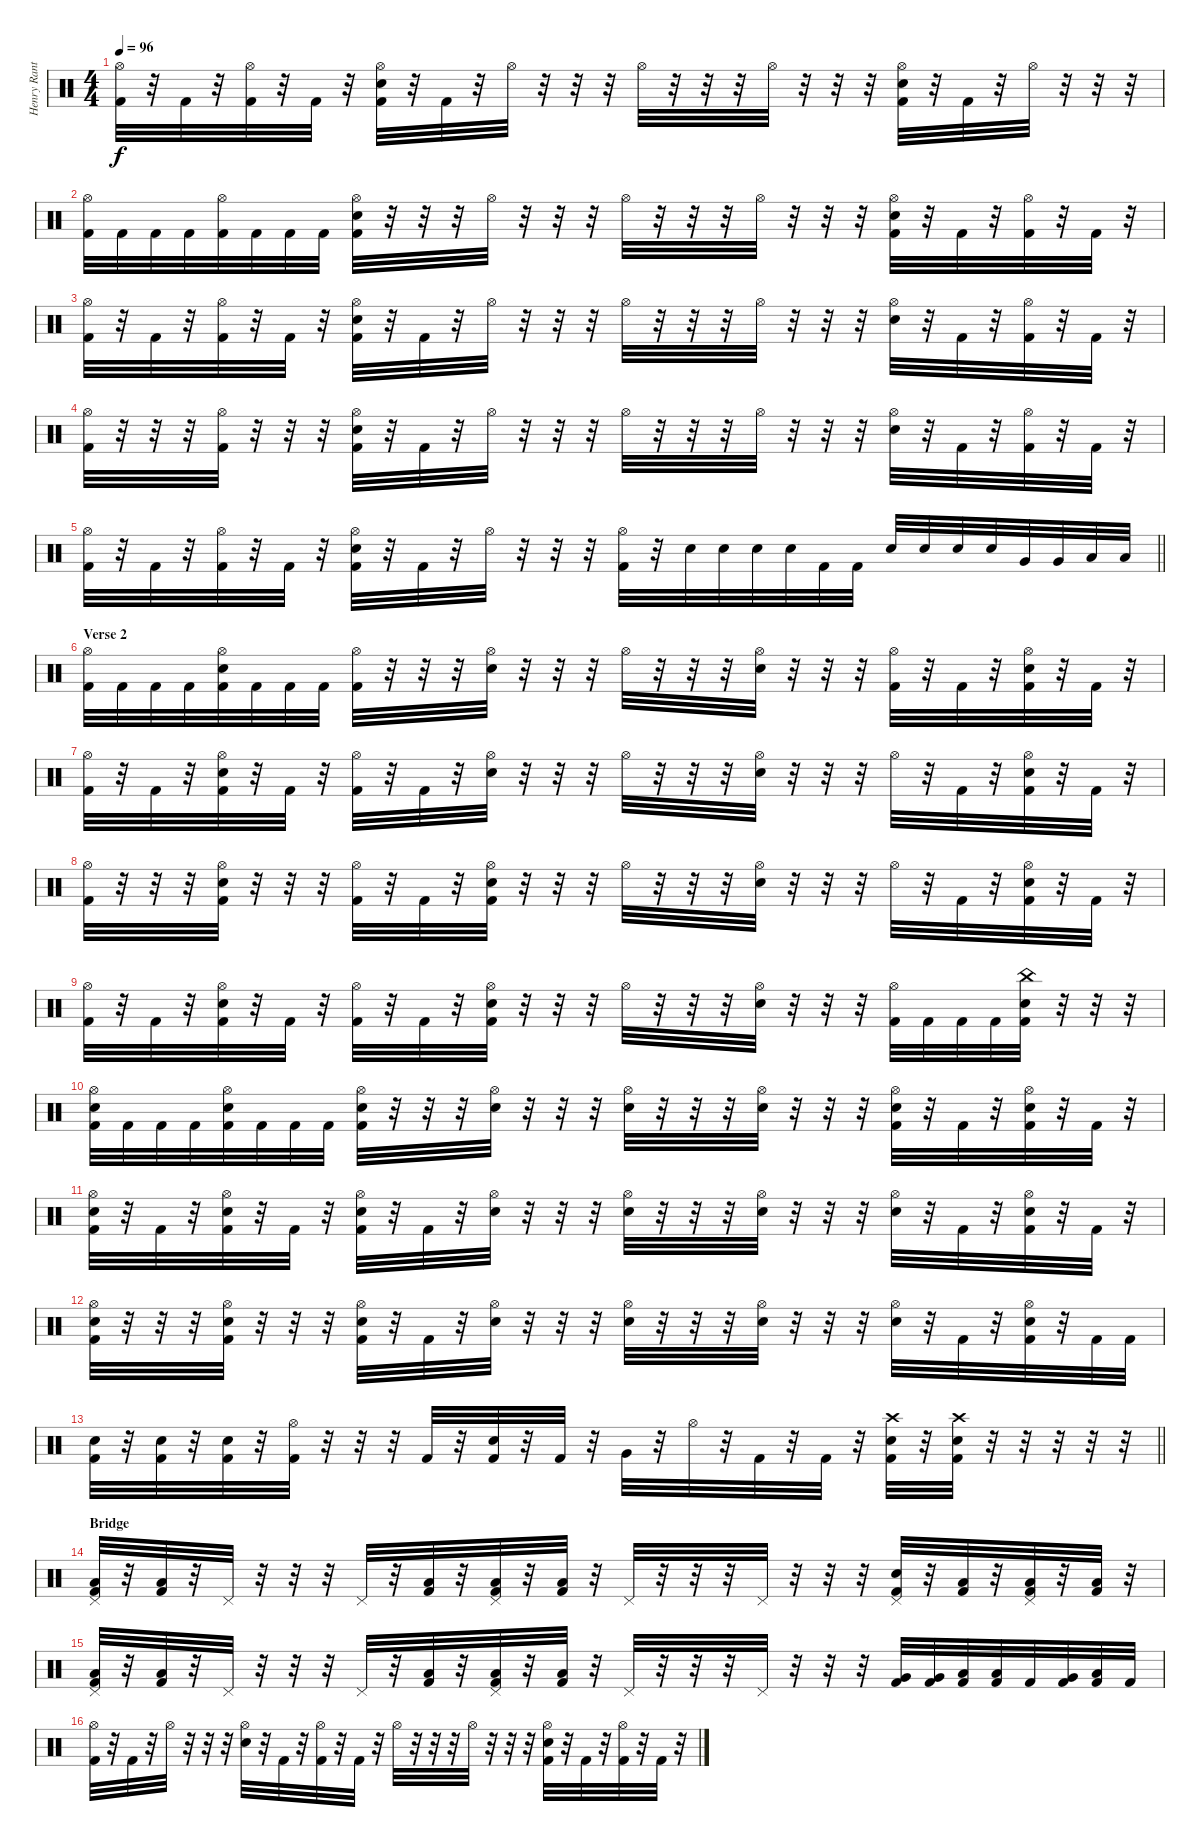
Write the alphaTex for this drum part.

\track ("Henry Ranta (Drumms)" "Henry Rant") {instrument percussion}
\staff {score}
\articulation defaults
\ts (4 4)
\tempo 96
\clef neutral
\ks c
("Hi-Hat (open)" "Kick (hit) 2").32{dy f} r.32 "Kick (hit) 2".32 r.32 ("Hi-Hat (open)" "Kick (hit) 2").32 r.32 "Kick (hit) 2".32 r.32 ("Hi-Hat (open)" "Snare (hit) 2" "Kick (hit) 2").32 r.32 "Kick (hit) 2".32 r.32 "Hi-Hat (open)".32 r.32 r.32 r.32 "Hi-Hat (open)".32 r.32 r.32 r.32 "Hi-Hat (open)".32 r.32 r.32 r.32 ("Hi-Hat (open)" "Snare (hit) 2" "Kick (hit) 2").32 r.32 "Kick (hit) 2".32 r.32 "Hi-Hat (open)".32 r.32 r.32 r.32 |
("Hi-Hat (open)" "Kick (hit) 2").32 "Kick (hit) 2".32 "Kick (hit) 2".32 "Kick (hit) 2".32 ("Hi-Hat (open)" "Kick (hit) 2").32 "Kick (hit) 2".32 "Kick (hit) 2".32 "Kick (hit) 2".32 ("Hi-Hat (open)" "Snare (hit) 2" "Kick (hit) 2").32 r.32 r.32 r.32 "Hi-Hat (open)".32 r.32 r.32 r.32 "Hi-Hat (open)".32 r.32 r.32 r.32 "Hi-Hat (open)".32 r.32 r.32 r.32 ("Hi-Hat (open)" "Snare (hit) 2" "Kick (hit) 2").32 r.32 "Kick (hit) 2".32 r.32 ("Hi-Hat (open)" "Kick (hit) 2").32 r.32 "Kick (hit) 2".32 r.32 |
("Hi-Hat (open)" "Kick (hit) 2").32 r.32 "Kick (hit) 2".32 r.32 ("Hi-Hat (open)" "Kick (hit) 2").32 r.32 "Kick (hit) 2".32 r.32 ("Hi-Hat (open)" "Snare (hit) 2" "Kick (hit) 2").32 r.32 "Kick (hit) 2".32 r.32 "Hi-Hat (open)".32 r.32 r.32 r.32 "Hi-Hat (open)".32 r.32 r.32 r.32 "Hi-Hat (open)".32 r.32 r.32 r.32 ("Hi-Hat (open)" "Snare (hit) 2").32 r.32 "Kick (hit) 2".32 r.32 ("Hi-Hat (open)" "Kick (hit) 2").32 r.32 "Kick (hit) 2".32 r.32 |
("Hi-Hat (open)" "Kick (hit) 2").32 r.32 r.32 r.32 ("Hi-Hat (open)" "Kick (hit) 2").32 r.32 r.32 r.32 ("Hi-Hat (open)" "Snare (hit) 2" "Kick (hit) 2").32 r.32 "Kick (hit) 2".32 r.32 "Hi-Hat (open)".32 r.32 r.32 r.32 "Hi-Hat (open)".32 r.32 r.32 r.32 "Hi-Hat (open)".32 r.32 r.32 r.32 ("Hi-Hat (open)" "Snare (hit) 2").32 r.32 "Kick (hit) 2".32 r.32 ("Hi-Hat (open)" "Kick (hit) 2").32 r.32 "Kick (hit) 2".32 r.32 |
\barLineRight lightlight
("Hi-Hat (open)" "Kick (hit) 2").32 r.32 "Kick (hit) 2".32 r.32 ("Hi-Hat (open)" "Kick (hit) 2").32 r.32 "Kick (hit) 2".32 r.32 ("Hi-Hat (open)" "Snare (hit) 2" "Kick (hit) 2").32 r.32 "Kick (hit) 2".32 r.32 "Hi-Hat (open)".32 r.32 r.32 r.32 ("Hi-Hat (open)" "Kick (hit) 2").32 r.32 "Snare (hit) 2".32 "Snare (hit) 2".32 "Snare (hit) 2".32 "Snare (hit) 2".32 "Kick (hit) 2".32 "Kick (hit) 2".32 "Snare (hit) 2".32 "Snare (hit) 2".32 "Snare (hit) 2".32 "Snare (hit) 2".32 "Very Low Tom (hit)".32 "Very Low Tom (hit)".32 "Low Floor Tom (hit)".32 "Low Floor Tom (hit)".32 |
\section ("" "Verse 2")
("Hi-Hat (open)" "Kick (hit) 2").32 "Kick (hit) 2".32 "Kick (hit) 2".32 "Kick (hit) 2".32 ("Hi-Hat (open)" "Snare (hit) 2" "Kick (hit) 2").32 "Kick (hit) 2".32 "Kick (hit) 2".32 "Kick (hit) 2".32 ("Hi-Hat (open)" "Kick (hit) 2").32 r.32 r.32 r.32 ("Hi-Hat (open)" "Snare (hit) 2").32 r.32 r.32 r.32 "Hi-Hat (open)".32 r.32 r.32 r.32 ("Hi-Hat (open)" "Snare (hit) 2").32 r.32 r.32 r.32 ("Hi-Hat (open)" "Kick (hit) 2").32 r.32 "Kick (hit) 2".32 r.32 ("Hi-Hat (open)" "Snare (hit) 2" "Kick (hit) 2").32 r.32 "Kick (hit) 2".32 r.32 |
("Hi-Hat (open)" "Kick (hit) 2").32 r.32 "Kick (hit) 2".32 r.32 ("Hi-Hat (open)" "Snare (hit) 2" "Kick (hit) 2").32 r.32 "Kick (hit) 2".32 r.32 ("Hi-Hat (open)" "Kick (hit) 2").32 r.32 "Kick (hit) 2".32 r.32 ("Hi-Hat (open)" "Snare (hit) 2").32 r.32 r.32 r.32 "Hi-Hat (open)".32 r.32 r.32 r.32 ("Hi-Hat (open)" "Snare (hit) 2").32 r.32 r.32 r.32 "Hi-Hat (open)".32 r.32 "Kick (hit) 2".32 r.32 ("Hi-Hat (open)" "Snare (hit) 2" "Kick (hit) 2").32 r.32 "Kick (hit) 2".32 r.32 |
("Hi-Hat (open)" "Kick (hit) 2").32 r.32 r.32 r.32 ("Hi-Hat (open)" "Snare (hit) 2" "Kick (hit) 2").32 r.32 r.32 r.32 ("Hi-Hat (open)" "Kick (hit) 2").32 r.32 "Kick (hit) 2".32 r.32 ("Hi-Hat (open)" "Snare (hit) 2" "Kick (hit) 2").32 r.32 r.32 r.32 "Hi-Hat (open)".32 r.32 r.32 r.32 ("Hi-Hat (open)" "Snare (hit) 2").32 r.32 r.32 r.32 "Hi-Hat (open)".32 r.32 "Kick (hit) 2".32 r.32 ("Hi-Hat (open)" "Snare (hit) 2" "Kick (hit) 2").32 r.32 "Kick (hit) 2".32 r.32 |
("Hi-Hat (open)" "Kick (hit) 2").32 r.32 "Kick (hit) 2".32 r.32 ("Hi-Hat (open)" "Snare (hit) 2" "Kick (hit) 2").32 r.32 "Kick (hit) 2".32 r.32 ("Hi-Hat (open)" "Kick (hit) 2").32 r.32 "Kick (hit) 2".32 r.32 ("Hi-Hat (open)" "Snare (hit) 2" "Kick (hit) 2").32 r.32 r.32 r.32 "Hi-Hat (open)".32 r.32 r.32 r.32 ("Hi-Hat (open)" "Snare (hit) 2").32 r.32 r.32 r.32 ("Hi-Hat (open)" "Kick (hit) 2").32 "Kick (hit) 2".32 "Kick (hit) 2".32 "Kick (hit) 2".32 ("China (hit)" "Snare (hit) 2" "Kick (hit) 2").32 r.32 r.32 r.32 |
("Hi-Hat (open)" "Snare (hit) 2" "Kick (hit) 2").32 "Kick (hit) 2".32 "Kick (hit) 2".32 "Kick (hit) 2".32 ("Hi-Hat (open)" "Snare (hit) 2" "Kick (hit) 2").32 "Kick (hit) 2".32 "Kick (hit) 2".32 "Kick (hit) 2".32 ("Hi-Hat (open)" "Snare (hit) 2" "Kick (hit) 2").32 r.32 r.32 r.32 ("Hi-Hat (open)" "Snare (hit) 2").32 r.32 r.32 r.32 ("Hi-Hat (open)" "Snare (hit) 2").32 r.32 r.32 r.32 ("Hi-Hat (open)" "Snare (hit) 2").32 r.32 r.32 r.32 ("Hi-Hat (open)" "Snare (hit) 2" "Kick (hit) 2").32 r.32 "Kick (hit) 2".32 r.32 ("Hi-Hat (open)" "Snare (hit) 2" "Kick (hit) 2").32 r.32 "Kick (hit) 2".32 r.32 |
("Hi-Hat (open)" "Snare (hit) 2" "Kick (hit) 2").32 r.32 "Kick (hit) 2".32 r.32 ("Hi-Hat (open)" "Snare (hit) 2" "Kick (hit) 2").32 r.32 "Kick (hit) 2".32 r.32 ("Hi-Hat (open)" "Snare (hit) 2" "Kick (hit) 2").32 r.32 "Kick (hit) 2".32 r.32 ("Hi-Hat (open)" "Snare (hit) 2").32 r.32 r.32 r.32 ("Hi-Hat (open)" "Snare (hit) 2").32 r.32 r.32 r.32 ("Hi-Hat (open)" "Snare (hit) 2").32 r.32 r.32 r.32 ("Hi-Hat (open)" "Snare (hit) 2").32 r.32 "Kick (hit) 2".32 r.32 ("Hi-Hat (open)" "Snare (hit) 2" "Kick (hit) 2").32 r.32 "Kick (hit) 2".32 r.32 |
("Hi-Hat (open)" "Snare (hit) 2" "Kick (hit) 2").32 r.32 r.32 r.32 ("Hi-Hat (open)" "Snare (hit) 2" "Kick (hit) 2").32 r.32 r.32 r.32 ("Hi-Hat (open)" "Snare (hit) 2" "Kick (hit) 2").32 r.32 "Kick (hit) 2".32 r.32 ("Hi-Hat (open)" "Snare (hit) 2").32 r.32 r.32 r.32 ("Hi-Hat (open)" "Snare (hit) 2").32 r.32 r.32 r.32 ("Hi-Hat (open)" "Snare (hit) 2").32 r.32 r.32 r.32 ("Hi-Hat (open)" "Snare (hit) 2").32 r.32 "Kick (hit) 2".32 r.32 ("Hi-Hat (open)" "Snare (hit) 2" "Kick (hit) 2").32 r.32 "Kick (hit) 2".32 "Kick (hit) 2".32 |
\barLineRight lightlight
("Snare (hit) 2" "Kick (hit) 2").32 r.32 ("Snare (hit) 2" "Kick (hit) 2").32 r.32 ("Snare (hit) 2" "Kick (hit) 2").32 r.32 ("Hi-Hat (open)" "Kick (hit) 2").32 r.32 r.32 r.32 "Kick (hit) 2".32 r.32 ("Snare (hit) 2" "Kick (hit) 2").32 r.32 "Kick (hit) 2".32 r.32 "Very Low Tom (hit)".32 r.32 "Hi-Hat (open)".32 r.32 "Kick (hit) 2".32 r.32 "Kick (hit) 2".32 r.32 ("Crash high (hit)" "Snare (hit) 2" "Kick (hit) 2").32 r.32 ("Crash high (hit)" "Snare (hit) 2" "Kick (hit) 2").32 r.32 r.32 r.32 r.32 r.32 |
\section ("" "Bridge")
("Pedal Hi-Hat (hit)" "Low Floor Tom (hit)" "Kick (hit) 2").32 r.32 ("Low Floor Tom (hit)" "Kick (hit) 2").32 r.32 "Pedal Hi-Hat (hit)".32 r.32 r.32 r.32 "Pedal Hi-Hat (hit)".32 r.32 ("Low Floor Tom (hit)" "Kick (hit) 2").32 r.32 ("Pedal Hi-Hat (hit)" "Low Floor Tom (hit)" "Kick (hit) 2").32 r.32 ("Low Floor Tom (hit)" "Kick (hit) 2").32 r.32 "Pedal Hi-Hat (hit)".32 r.32 r.32 r.32 "Pedal Hi-Hat (hit)".32 r.32 r.32 r.32 ("Pedal Hi-Hat (hit)" "Snare (hit) 2" "Kick (hit) 2").32 r.32 ("Low Floor Tom (hit)" "Kick (hit) 2").32 r.32 ("Pedal Hi-Hat (hit)" "Low Floor Tom (hit)" "Kick (hit) 2").32 r.32 ("Low Floor Tom (hit)" "Kick (hit) 2").32 r.32 |
("Pedal Hi-Hat (hit)" "Low Floor Tom (hit)" "Kick (hit) 2").32 r.32 ("Low Floor Tom (hit)" "Kick (hit) 2").32 r.32 "Pedal Hi-Hat (hit)".32 r.32 r.32 r.32 "Pedal Hi-Hat (hit)".32 r.32 ("Low Floor Tom (hit)" "Kick (hit) 2").32 r.32 ("Pedal Hi-Hat (hit)" "Low Floor Tom (hit)" "Kick (hit) 2").32 r.32 ("Low Floor Tom (hit)" "Kick (hit) 2").32 r.32 "Pedal Hi-Hat (hit)".32 r.32 r.32 r.32 "Pedal Hi-Hat (hit)".32 r.32 r.32 r.32 ("Very Low Tom (hit)" "Kick (hit) 2").32 ("Very Low Tom (hit)" "Kick (hit) 2").32 ("Low Floor Tom (hit)" "Kick (hit) 2").32 ("Low Floor Tom (hit)" "Kick (hit) 2").32 "Kick (hit) 2".32 ("Very Low Tom (hit)" "Kick (hit) 2").32 ("Low Floor Tom (hit)" "Kick (hit) 2").32 "Kick (hit) 2".32 |
("Hi-Hat (open)" "Kick (hit) 2").32 r.32 "Kick (hit) 2".32 r.32 "Hi-Hat (open)".32 r.32 r.32 r.32 ("Hi-Hat (open)" "Snare (hit) 2").32 r.32 "Kick (hit) 2".32 r.32 ("Hi-Hat (open)" "Kick (hit) 2").32 r.32 "Kick (hit) 2".32 r.32 "Hi-Hat (open)".32 r.32 r.32 r.32 "Hi-Hat (open)".32 r.32 r.32 r.32 ("Hi-Hat (open)" "Snare (hit) 2" "Kick (hit) 2").32 r.32 "Kick (hit) 2".32 r.32 ("Hi-Hat (open)" "Kick (hit) 2").32 r.32 "Kick (hit) 2".32 r.32
